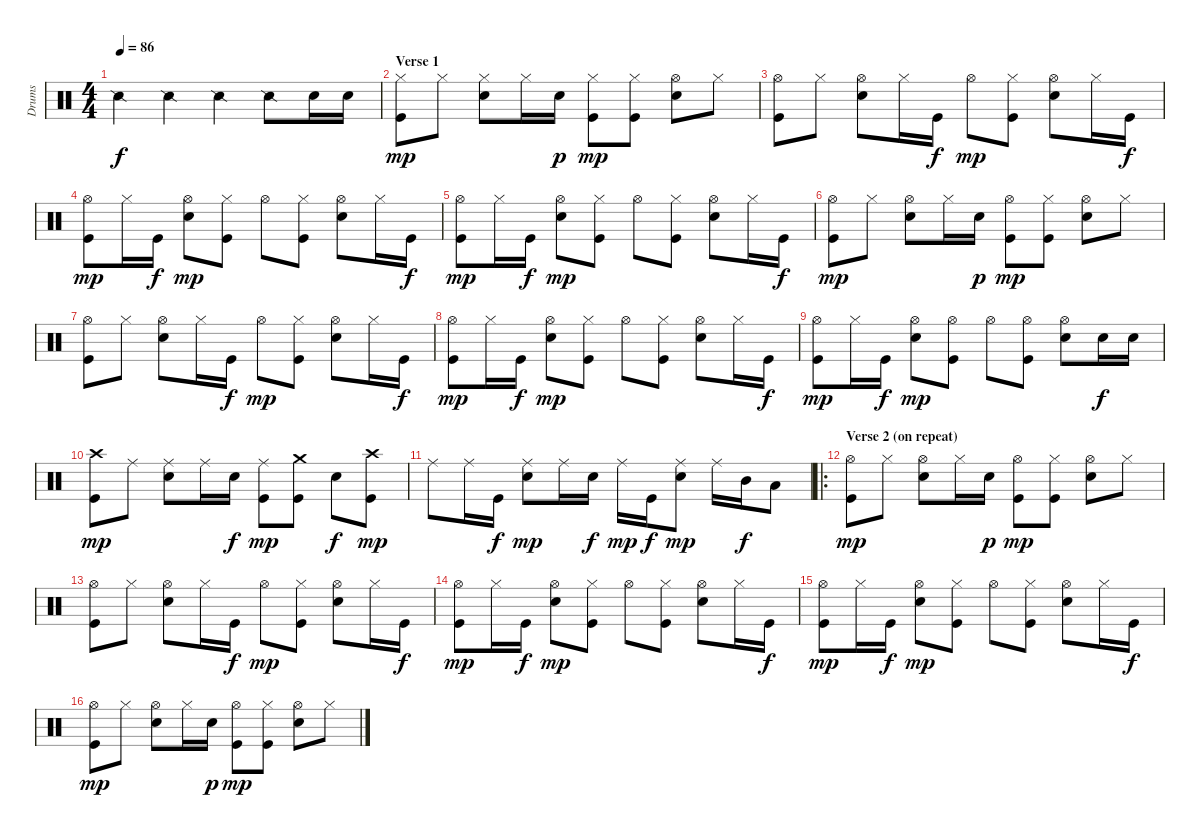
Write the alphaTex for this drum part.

\track ("Drums" "Drums") {instrument percussion}
\staff {score}
\articulation defaults
\ts (4 4)
\tempo 86
\clef neutral
\ks c "Snare (side stick) 2".4{dy f} "Snare (side stick) 2".4 "Snare (side stick) 2".4 "Snare (side stick) 2".8 "Electric Snare (hit)".16 "Electric Snare (hit)".16
|
\section ("" "Verse 1")
("Hi-Hat (closed)" "Kick (hit)").8{dy mp} "Hi-Hat (closed)".8 ("Hi-Hat (closed)" "Electric Snare (hit)").8 "Hi-Hat (closed)".16 "Electric Snare (hit)".16{dy p} ("Hi-Hat (closed)" "Kick (hit)").8{dy mp} ("Hi-Hat (closed)" "Kick (hit)").8 ("Hi-Hat (open)" "Electric Snare (hit)").8 "Hi-Hat (closed)".8 |
("Hi-Hat (open)" "Kick (hit)").8 "Hi-Hat (closed)".8 ("Hi-Hat (open)" "Electric Snare (hit)").8 "Hi-Hat (closed)".16 "Kick (hit)".16{dy f} "Hi-Hat (open)".8{dy mp} ("Hi-Hat (closed)" "Kick (hit)").8 ("Hi-Hat (open)" "Electric Snare (hit)").8 "Hi-Hat (closed)".16 "Kick (hit)".16{dy f} |
("Hi-Hat (open)" "Kick (hit)").8{dy mp} "Hi-Hat (closed)".16 "Kick (hit)".16{dy f} ("Hi-Hat (open)" "Electric Snare (hit)").8{dy mp} ("Hi-Hat (closed)" "Kick (hit)").8 "Hi-Hat (open)".8 ("Hi-Hat (closed)" "Kick (hit)").8 ("Hi-Hat (open)" "Electric Snare (hit)").8 "Hi-Hat (closed)".16 "Kick (hit)".16{dy f} |
("Hi-Hat (open)" "Kick (hit)").8{dy mp} "Hi-Hat (closed)".16 "Kick (hit)".16{dy f} ("Hi-Hat (open)" "Electric Snare (hit)").8{dy mp} ("Hi-Hat (closed)" "Kick (hit)").8 "Hi-Hat (open)".8 ("Hi-Hat (closed)" "Kick (hit)").8 ("Hi-Hat (open)" "Electric Snare (hit)").8 "Hi-Hat (closed)".16 "Kick (hit)".16{dy f} |
("Hi-Hat (open)" "Kick (hit)").8{dy mp} "Hi-Hat (closed)".8 ("Hi-Hat (open)" "Electric Snare (hit)").8 "Hi-Hat (closed)".16 "Electric Snare (hit)".16{dy p} ("Hi-Hat (open)" "Kick (hit)").8{dy mp} ("Hi-Hat (closed)" "Kick (hit)").8 ("Hi-Hat (open)" "Electric Snare (hit)").8 "Hi-Hat (closed)".8 |
("Hi-Hat (open)" "Kick (hit)").8 "Hi-Hat (closed)".8 ("Hi-Hat (open)" "Electric Snare (hit)").8 "Hi-Hat (closed)".16 "Kick (hit)".16{dy f} "Hi-Hat (open)".8{dy mp} ("Hi-Hat (closed)" "Kick (hit)").8 ("Hi-Hat (open)" "Electric Snare (hit)").8 "Hi-Hat (closed)".16 "Kick (hit)".16{dy f} |
("Hi-Hat (open)" "Kick (hit)").8{dy mp} "Hi-Hat (closed)".16 "Kick (hit)".16{dy f} ("Hi-Hat (open)" "Electric Snare (hit)").8{dy mp} ("Hi-Hat (closed)" "Kick (hit)").8 "Hi-Hat (open)".8 ("Hi-Hat (closed)" "Kick (hit)").8 ("Hi-Hat (open)" "Electric Snare (hit)").8 "Hi-Hat (closed)".16 "Kick (hit)".16{dy f} |
("Hi-Hat (open)" "Kick (hit)").8{dy mp} "Hi-Hat (closed)".16 "Kick (hit)".16{dy f} ("Hi-Hat (open)" "Electric Snare (hit)").8{dy mp} ("Hi-Hat (open)" "Kick (hit)").8 "Hi-Hat (open)".8 ("Hi-Hat (open)" "Kick (hit)").8 ("Hi-Hat (open)" "Electric Snare (hit)").8 "Electric Snare (hit)".16{dy f} "Electric Snare (hit)".16 |
("Crash high (hit)" "Kick (hit)").8{dy mp} "Ride (middle)".8 ("Ride (middle)" "Electric Snare (hit)").8 "Ride (middle)".16 "Electric Snare (hit)".16{dy f} ("Ride (middle)" "Kick (hit)").8{dy mp} ("Crash medium (hit)" "Kick (hit)").8 "Electric Snare (hit)".8{dy f} ("Crash high (hit)" "Kick (hit)").8{dy mp} |
"Ride (middle)".8 "Ride (middle)".16 "Kick (hit)".16{dy f} ("Ride (middle)" "Electric Snare (hit)").8{dy mp} "Ride (middle)".16 "Electric Snare (hit)".16{dy f} "Ride (middle)".16{dy mp} "Kick (hit)".16{dy f} ("Ride (middle)" "Electric Snare (hit)").8{dy mp} "Ride (middle)".16 "Mid Tom (hit)".16{dy f} "Low Tom (hit)".8 |
\ro
\section ("" "Verse 2 (on repeat)")
("Hi-Hat (open)" "Kick (hit)").8{dy mp} "Hi-Hat (closed)".8 ("Hi-Hat (open)" "Electric Snare (hit)").8 "Hi-Hat (closed)".16 "Electric Snare (hit)".16{dy p} ("Hi-Hat (open)" "Kick (hit)").8{dy mp} ("Hi-Hat (closed)" "Kick (hit)").8 ("Hi-Hat (open)" "Electric Snare (hit)").8 "Hi-Hat (closed)".8 |
("Hi-Hat (open)" "Kick (hit)").8 "Hi-Hat (closed)".8 ("Hi-Hat (open)" "Electric Snare (hit)").8 "Hi-Hat (closed)".16 "Kick (hit)".16{dy f} "Hi-Hat (open)".8{dy mp} ("Hi-Hat (closed)" "Kick (hit)").8 ("Hi-Hat (open)" "Electric Snare (hit)").8 "Hi-Hat (closed)".16 "Kick (hit)".16{dy f} |
("Hi-Hat (open)" "Kick (hit)").8{dy mp} "Hi-Hat (closed)".16 "Kick (hit)".16{dy f} ("Hi-Hat (open)" "Electric Snare (hit)").8{dy mp} ("Hi-Hat (closed)" "Kick (hit)").8 "Hi-Hat (open)".8 ("Hi-Hat (closed)" "Kick (hit)").8 ("Hi-Hat (open)" "Electric Snare (hit)").8 "Hi-Hat (closed)".16 "Kick (hit)".16{dy f} |
("Hi-Hat (open)" "Kick (hit)").8{dy mp} "Hi-Hat (closed)".16 "Kick (hit)".16{dy f} ("Hi-Hat (open)" "Electric Snare (hit)").8{dy mp} ("Hi-Hat (closed)" "Kick (hit)").8 "Hi-Hat (open)".8 ("Hi-Hat (closed)" "Kick (hit)").8 ("Hi-Hat (open)" "Electric Snare (hit)").8 "Hi-Hat (closed)".16 "Kick (hit)".16{dy f} |
("Hi-Hat (open)" "Kick (hit)").8{dy mp} "Hi-Hat (closed)".8 ("Hi-Hat (open)" "Electric Snare (hit)").8 "Hi-Hat (closed)".16 "Electric Snare (hit)".16{dy p} ("Hi-Hat (open)" "Kick (hit)").8{dy mp} ("Hi-Hat (closed)" "Kick (hit)").8 ("Hi-Hat (open)" "Electric Snare (hit)").8 "Hi-Hat (closed)".8
